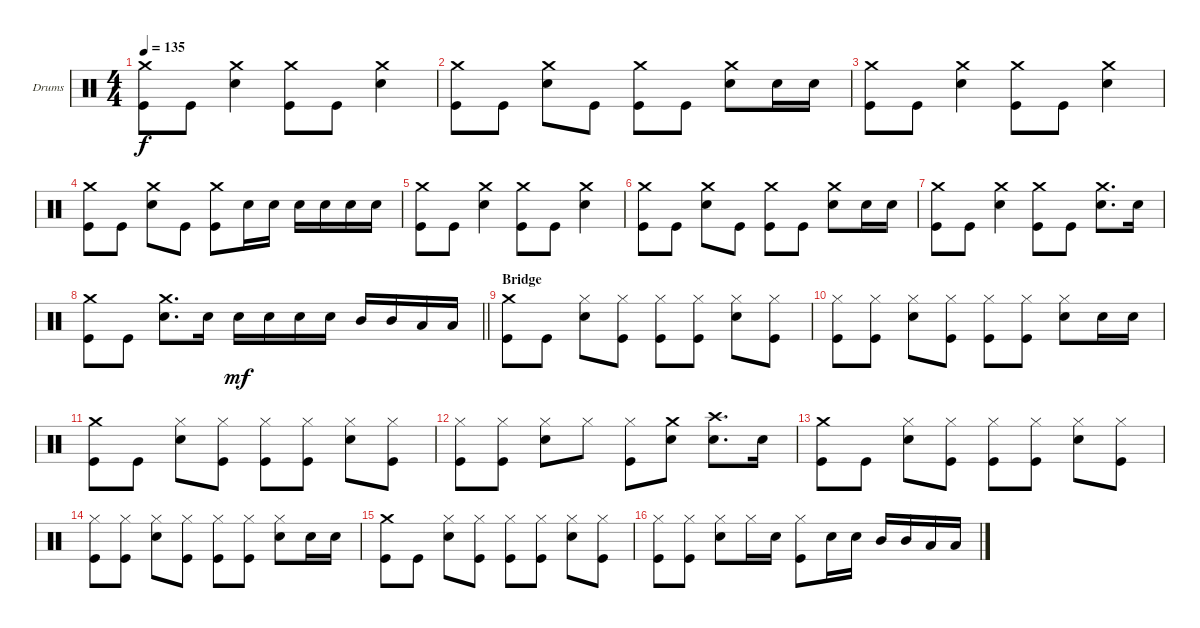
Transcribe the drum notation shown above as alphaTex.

\bracketExtendMode groupsimilarinstruments
\firstSystemTrackNameOrientation horizontal
\otherSystemsTrackNameOrientation horizontal
\track ("Drumkit" "Drums") {instrument percussion}
\staff {score}
\articulation defaults
\ts (4 4)
\tempo 135
\clef neutral
\ks c
("Crash medium (hit)" "Kick (hit)").8{dy f} "Kick (hit)".8 ("Snare (hit) 2" "Crash medium (hit)").4 ("Crash medium (hit)" "Kick (hit)").8 "Kick (hit)".8 ("Snare (hit) 2" "Crash medium (hit)").4 |
("Crash medium (hit)" "Kick (hit)").8 "Kick (hit)".8 ("Snare (hit) 2" "Crash medium (hit)").8 "Kick (hit)".8 ("Crash medium (hit)" "Kick (hit)").8 "Kick (hit)".8 ("Snare (hit) 2" "Crash medium (hit)").8 "Snare (hit) 2".16 "Snare (hit) 2".16 |
("Crash medium (hit)" "Kick (hit)").8 "Kick (hit)".8 ("Snare (hit) 2" "Crash medium (hit)").4 ("Crash medium (hit)" "Kick (hit)").8 "Kick (hit)".8 ("Snare (hit) 2" "Crash medium (hit)").4 |
("Crash medium (hit)" "Kick (hit)").8 "Kick (hit)".8 ("Snare (hit) 2" "Crash medium (hit)").8 "Kick (hit)".8 ("Crash medium (hit)" "Kick (hit)").8 "Snare (hit) 2".16 "Snare (hit) 2".16 "Snare (hit) 2".16 "Snare (hit) 2".16 "Snare (hit) 2".16 "Snare (hit) 2".16 |
("Crash medium (hit)" "Kick (hit)").8 "Kick (hit)".8 ("Snare (hit) 2" "Crash medium (hit)").4 ("Crash medium (hit)" "Kick (hit)").8 "Kick (hit)".8 ("Snare (hit) 2" "Crash medium (hit)").4 |
("Crash medium (hit)" "Kick (hit)").8 "Kick (hit)".8 ("Snare (hit) 2" "Crash medium (hit)").8 "Kick (hit)".8 ("Crash medium (hit)" "Kick (hit)").8 "Kick (hit)".8 ("Snare (hit) 2" "Crash medium (hit)").8 "Snare (hit) 2".16 "Snare (hit) 2".16 |
("Crash medium (hit)" "Kick (hit)").8 "Kick (hit)".8 ("Snare (hit) 2" "Crash medium (hit)").4 ("Crash medium (hit)" "Kick (hit)").8 "Kick (hit)".8 ("Snare (hit) 2" "Crash medium (hit)").8{d} "Snare (hit) 2".16 |
\barLineRight lightlight
("Crash medium (hit)" "Kick (hit)").8 "Kick (hit)".8 ("Snare (hit) 2" "Crash medium (hit)").8{d} "Snare (hit) 2".16 "Snare (hit) 2".16{dy mf} "Snare (hit) 2".16 "Snare (hit) 2".16 "Snare (hit) 2".16 "Mid Tom (hit)".16 "Mid Tom (hit)".16 "Low Tom (hit)".16 "Low Tom (hit)".16 |
\section ("" "Bridge")
("Crash medium (hit)" "Kick (hit)").8 "Kick (hit)".8 ("Hi-Hat (closed)" "Snare (hit) 2").8 ("Kick (hit)" "Hi-Hat (closed)").8 ("Kick (hit)" "Hi-Hat (closed)").8 ("Kick (hit)" "Hi-Hat (closed)").8 ("Snare (hit) 2" "Hi-Hat (closed)").8 ("Kick (hit)" "Hi-Hat (closed)").8 |
("Kick (hit)" "Hi-Hat (closed)").8 ("Kick (hit)" "Hi-Hat (closed)").8 ("Snare (hit) 2" "Hi-Hat (closed)").8 ("Kick (hit)" "Hi-Hat (closed)").8 ("Kick (hit)" "Hi-Hat (closed)").8 ("Kick (hit)" "Hi-Hat (closed)").8 ("Snare (hit) 2" "Hi-Hat (closed)").8 "Snare (hit) 2".16 "Snare (hit) 2".16 |
("Crash medium (hit)" "Kick (hit)").8 "Kick (hit)".8 ("Snare (hit) 2" "Hi-Hat (closed)").8 ("Kick (hit)" "Hi-Hat (closed)").8 ("Kick (hit)" "Hi-Hat (closed)").8 ("Kick (hit)" "Hi-Hat (closed)").8 ("Snare (hit) 2" "Hi-Hat (closed)").8 ("Kick (hit)" "Hi-Hat (closed)").8 |
("Kick (hit)" "Hi-Hat (closed)").8 ("Kick (hit)" "Hi-Hat (closed)").8 ("Snare (hit) 2" "Hi-Hat (closed)").8 "Hi-Hat (closed)".8 ("Kick (hit)" "Hi-Hat (closed)").8 ("Crash medium (hit)" "Snare (hit) 2").8 ("Snare (hit) 2" "Crash high (hit)").8{d} "Snare (hit) 2".16 |
("Crash medium (hit)" "Kick (hit)").8 "Kick (hit)".8 ("Snare (hit) 2" "Hi-Hat (closed)").8 ("Kick (hit)" "Hi-Hat (closed)").8 ("Kick (hit)" "Hi-Hat (closed)").8 ("Kick (hit)" "Hi-Hat (closed)").8 ("Snare (hit) 2" "Hi-Hat (closed)").8 ("Kick (hit)" "Hi-Hat (closed)").8 |
("Kick (hit)" "Hi-Hat (closed)").8 ("Kick (hit)" "Hi-Hat (closed)").8 ("Snare (hit) 2" "Hi-Hat (closed)").8 ("Kick (hit)" "Hi-Hat (closed)").8 ("Kick (hit)" "Hi-Hat (closed)").8 ("Kick (hit)" "Hi-Hat (closed)").8 ("Snare (hit) 2" "Hi-Hat (closed)").8 "Snare (hit) 2".16 "Snare (hit) 2".16 |
("Crash medium (hit)" "Kick (hit)").8 "Kick (hit)".8 ("Snare (hit) 2" "Hi-Hat (closed)").8 ("Kick (hit)" "Hi-Hat (closed)").8 ("Kick (hit)" "Hi-Hat (closed)").8 ("Kick (hit)" "Hi-Hat (closed)").8 ("Snare (hit) 2" "Hi-Hat (closed)").8 ("Kick (hit)" "Hi-Hat (closed)").8 |
("Kick (hit)" "Hi-Hat (closed)").8 ("Kick (hit)" "Hi-Hat (closed)").8 ("Snare (hit) 2" "Hi-Hat (closed)").8 "Hi-Hat (closed)".16 "Snare (hit) 2".16 ("Kick (hit)" "Hi-Hat (closed)").8 "Snare (hit) 2".16 "Snare (hit) 2".16 "Mid Tom (hit)".16 "Mid Tom (hit)".16 "Low Tom (hit)".16 "Low Tom (hit)".16
